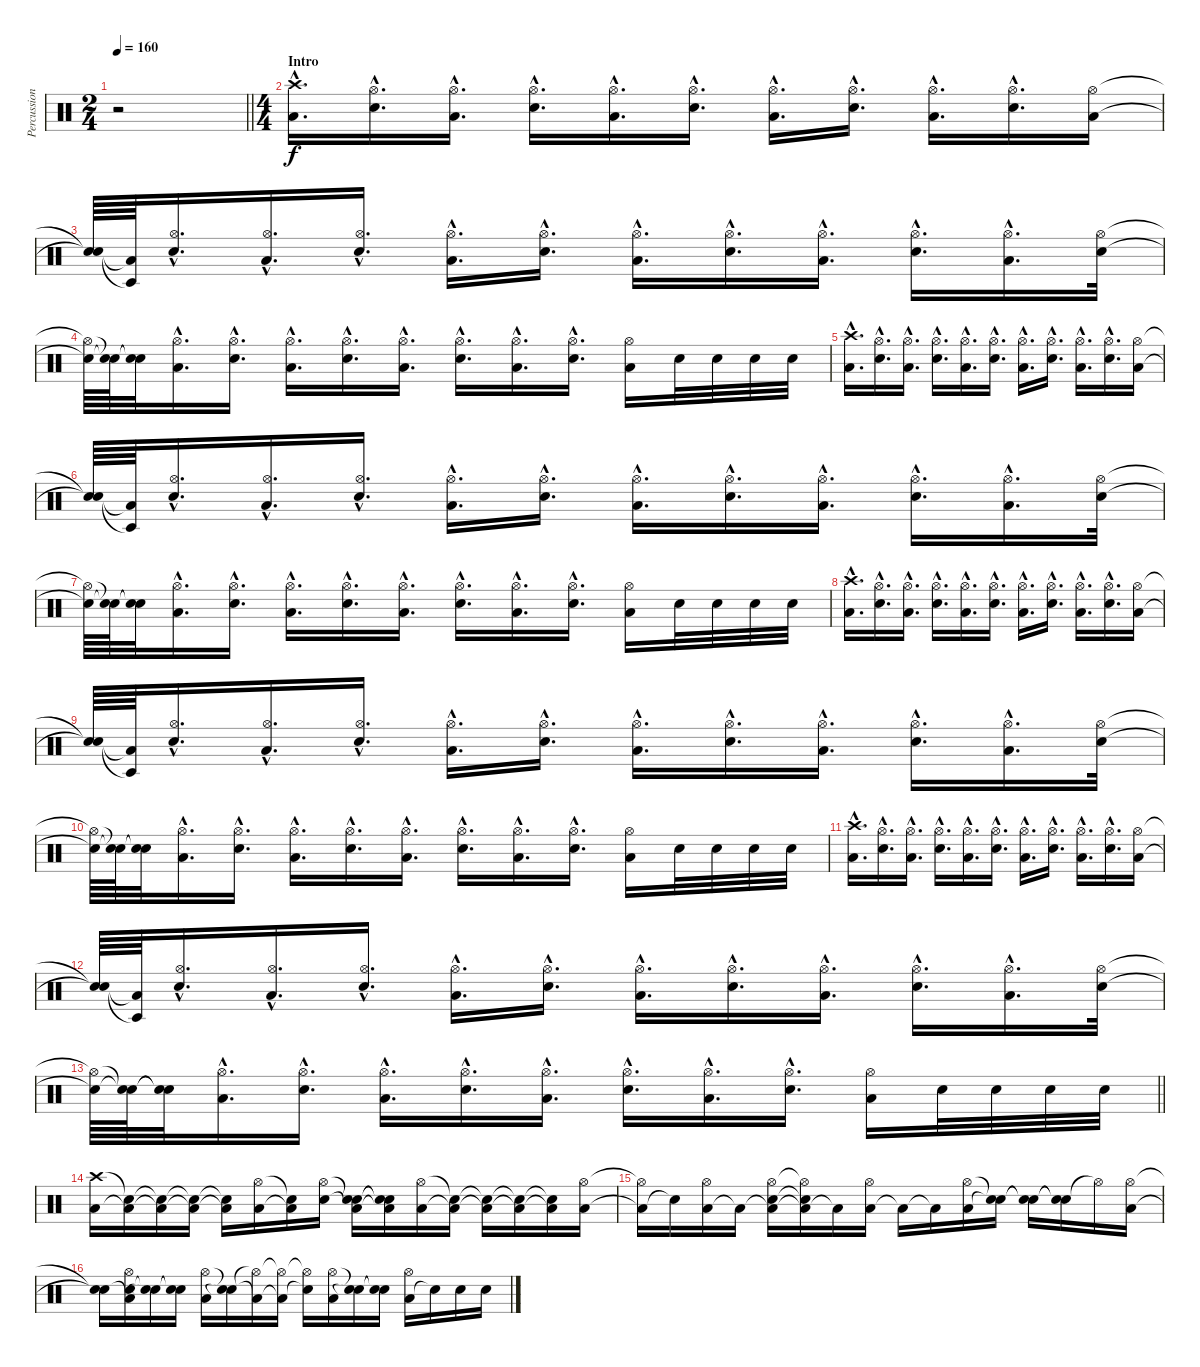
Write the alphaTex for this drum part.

\track ("Percussion 1" "Percussion") {instrument percussion}
\staff {score}
\articulation defaults
\ts (2 4)
\tempo 160
\clef neutral
\barLineRight lightlight
\ks c
r.2{dy f} |
\ts (4 4)
\section ("" "Intro")
("Low Floor Tom (hit)"{hac} "Crash high (hit)"{hac}).16{d} ("Snare (hit) 2"{hac} "Hi-Hat (open)"{hac}).16{d} ("Low Floor Tom (hit)"{hac} "Hi-Hat (open)"{hac}).16{d} ("Snare (hit) 2"{hac} "Hi-Hat (open)"{hac}).16{d} ("Low Floor Tom (hit)"{hac} "Hi-Hat (open)"{hac}).16{d} ("Snare (hit) 2"{hac} "Hi-Hat (open)"{hac}).16{d} ("Low Floor Tom (hit)"{hac} "Hi-Hat (open)"{hac}).16{d} ("Snare (hit) 2"{hac} "Hi-Hat (open)"{hac}).16{d} ("Low Floor Tom (hit)"{hac} "Hi-Hat (open)"{hac}).16{d} ("Snare (hit) 2"{hac} "Hi-Hat (open)"{hac}).16{d} ("Low Floor Tom (hit)" "Hi-Hat (open)").16 |
("Snare (hit)"{t} "Snare (hit)"{t}).64 ("Low Floor Tom (hit)"{t} "Timbale low (hit)"{t}).64 ("Snare (hit) 2"{hac} "Hi-Hat (open)"{hac}).16{d} ("Low Floor Tom (hit)"{hac} "Hi-Hat (open)"{hac}).16{d} ("Snare (hit) 2"{hac} "Hi-Hat (open)"{hac}).16{d} ("Low Floor Tom (hit)"{hac} "Hi-Hat (open)"{hac}).16{d} ("Snare (hit) 2"{hac} "Hi-Hat (open)"{hac}).16{d} ("Low Floor Tom (hit)"{hac} "Hi-Hat (open)"{hac}).16{d} ("Snare (hit) 2"{hac} "Hi-Hat (open)"{hac}).16{d} ("Low Floor Tom (hit)"{hac} "Hi-Hat (open)"{hac}).16{d} ("Snare (hit) 2"{hac} "Hi-Hat (open)"{hac}).16{d} ("Low Floor Tom (hit)"{hac} "Hi-Hat (open)"{hac}).16{d} ("Snare (hit) 2" "Hi-Hat (open)").32 |
("Snare (hit) 2"{t} "Hi-Hat (open)"{t}).64 ("Snare (hit)"{t} "Snare (hit)"{t}).64 ("Snare (hit)"{t} "Snare (hit)"{t}).32 ("Low Floor Tom (hit)"{hac} "Hi-Hat (open)"{hac}).16{d} ("Snare (hit) 2"{hac} "Hi-Hat (open)"{hac}).16{d} ("Low Floor Tom (hit)"{hac} "Hi-Hat (open)"{hac}).16{d} ("Snare (hit) 2"{hac} "Hi-Hat (open)"{hac}).16{d} ("Low Floor Tom (hit)"{hac} "Hi-Hat (open)"{hac}).16{d} ("Snare (hit) 2"{hac} "Hi-Hat (open)"{hac}).16{d} ("Low Floor Tom (hit)"{hac} "Hi-Hat (open)"{hac}).16{d} ("Snare (hit) 2"{hac} "Hi-Hat (open)"{hac}).16{d} ("Low Floor Tom (hit)" "Hi-Hat (open)").16 "Snare (hit) 2".32 "Snare (hit) 2".32 "Snare (hit) 2".32 "Snare (hit) 2".32 |
("Low Floor Tom (hit)"{hac} "Crash high (hit)"{hac}).16{d} ("Snare (hit) 2"{hac} "Hi-Hat (open)"{hac}).16{d} ("Low Floor Tom (hit)"{hac} "Hi-Hat (open)"{hac}).16{d} ("Snare (hit) 2"{hac} "Hi-Hat (open)"{hac}).16{d} ("Low Floor Tom (hit)"{hac} "Hi-Hat (open)"{hac}).16{d} ("Snare (hit) 2"{hac} "Hi-Hat (open)"{hac}).16{d} ("Low Floor Tom (hit)"{hac} "Hi-Hat (open)"{hac}).16{d} ("Snare (hit) 2"{hac} "Hi-Hat (open)"{hac}).16{d} ("Low Floor Tom (hit)"{hac} "Hi-Hat (open)"{hac}).16{d} ("Snare (hit) 2"{hac} "Hi-Hat (open)"{hac}).16{d} ("Low Floor Tom (hit)" "Hi-Hat (open)").16 |
("Snare (hit)"{t} "Snare (hit)"{t}).64 ("Low Floor Tom (hit)"{t} "Timbale low (hit)"{t}).64 ("Snare (hit) 2"{hac} "Hi-Hat (open)"{hac}).16{d} ("Low Floor Tom (hit)"{hac} "Hi-Hat (open)"{hac}).16{d} ("Snare (hit) 2"{hac} "Hi-Hat (open)"{hac}).16{d} ("Low Floor Tom (hit)"{hac} "Hi-Hat (open)"{hac}).16{d} ("Snare (hit) 2"{hac} "Hi-Hat (open)"{hac}).16{d} ("Low Floor Tom (hit)"{hac} "Hi-Hat (open)"{hac}).16{d} ("Snare (hit) 2"{hac} "Hi-Hat (open)"{hac}).16{d} ("Low Floor Tom (hit)"{hac} "Hi-Hat (open)"{hac}).16{d} ("Snare (hit) 2"{hac} "Hi-Hat (open)"{hac}).16{d} ("Low Floor Tom (hit)"{hac} "Hi-Hat (open)"{hac}).16{d} ("Snare (hit) 2" "Hi-Hat (open)").32 |
("Snare (hit) 2"{t} "Hi-Hat (open)"{t}).64 ("Snare (hit)"{t} "Snare (hit)"{t}).64 ("Snare (hit)"{t} "Snare (hit)"{t}).32 ("Low Floor Tom (hit)"{hac} "Hi-Hat (open)"{hac}).16{d} ("Snare (hit) 2"{hac} "Hi-Hat (open)"{hac}).16{d} ("Low Floor Tom (hit)"{hac} "Hi-Hat (open)"{hac}).16{d} ("Snare (hit) 2"{hac} "Hi-Hat (open)"{hac}).16{d} ("Low Floor Tom (hit)"{hac} "Hi-Hat (open)"{hac}).16{d} ("Snare (hit) 2"{hac} "Hi-Hat (open)"{hac}).16{d} ("Low Floor Tom (hit)"{hac} "Hi-Hat (open)"{hac}).16{d} ("Snare (hit) 2"{hac} "Hi-Hat (open)"{hac}).16{d} ("Low Floor Tom (hit)" "Hi-Hat (open)").16 "Snare (hit) 2".32 "Snare (hit) 2".32 "Snare (hit) 2".32 "Snare (hit) 2".32 |
("Low Floor Tom (hit)"{hac} "Crash high (hit)"{hac}).16{d} ("Snare (hit) 2"{hac} "Hi-Hat (open)"{hac}).16{d} ("Low Floor Tom (hit)"{hac} "Hi-Hat (open)"{hac}).16{d} ("Snare (hit) 2"{hac} "Hi-Hat (open)"{hac}).16{d} ("Low Floor Tom (hit)"{hac} "Hi-Hat (open)"{hac}).16{d} ("Snare (hit) 2"{hac} "Hi-Hat (open)"{hac}).16{d} ("Low Floor Tom (hit)"{hac} "Hi-Hat (open)"{hac}).16{d} ("Snare (hit) 2"{hac} "Hi-Hat (open)"{hac}).16{d} ("Low Floor Tom (hit)"{hac} "Hi-Hat (open)"{hac}).16{d} ("Snare (hit) 2"{hac} "Hi-Hat (open)"{hac}).16{d} ("Low Floor Tom (hit)" "Hi-Hat (open)").16 |
("Snare (hit)"{t} "Snare (hit)"{t}).64 ("Low Floor Tom (hit)"{t} "Timbale low (hit)"{t}).64 ("Snare (hit) 2"{hac} "Hi-Hat (open)"{hac}).16{d} ("Low Floor Tom (hit)"{hac} "Hi-Hat (open)"{hac}).16{d} ("Snare (hit) 2"{hac} "Hi-Hat (open)"{hac}).16{d} ("Low Floor Tom (hit)"{hac} "Hi-Hat (open)"{hac}).16{d} ("Snare (hit) 2"{hac} "Hi-Hat (open)"{hac}).16{d} ("Low Floor Tom (hit)"{hac} "Hi-Hat (open)"{hac}).16{d} ("Snare (hit) 2"{hac} "Hi-Hat (open)"{hac}).16{d} ("Low Floor Tom (hit)"{hac} "Hi-Hat (open)"{hac}).16{d} ("Snare (hit) 2"{hac} "Hi-Hat (open)"{hac}).16{d} ("Low Floor Tom (hit)"{hac} "Hi-Hat (open)"{hac}).16{d} ("Snare (hit) 2" "Hi-Hat (open)").32 |
("Snare (hit) 2"{t} "Hi-Hat (open)"{t}).64 ("Snare (hit)"{t} "Snare (hit)"{t}).64 ("Snare (hit)"{t} "Snare (hit)"{t}).32 ("Low Floor Tom (hit)"{hac} "Hi-Hat (open)"{hac}).16{d} ("Snare (hit) 2"{hac} "Hi-Hat (open)"{hac}).16{d} ("Low Floor Tom (hit)"{hac} "Hi-Hat (open)"{hac}).16{d} ("Snare (hit) 2"{hac} "Hi-Hat (open)"{hac}).16{d} ("Low Floor Tom (hit)"{hac} "Hi-Hat (open)"{hac}).16{d} ("Snare (hit) 2"{hac} "Hi-Hat (open)"{hac}).16{d} ("Low Floor Tom (hit)"{hac} "Hi-Hat (open)"{hac}).16{d} ("Snare (hit) 2"{hac} "Hi-Hat (open)"{hac}).16{d} ("Low Floor Tom (hit)" "Hi-Hat (open)").16 "Snare (hit) 2".32 "Snare (hit) 2".32 "Snare (hit) 2".32 "Snare (hit) 2".32 |
("Low Floor Tom (hit)"{hac} "Crash high (hit)"{hac}).16{d} ("Snare (hit) 2"{hac} "Hi-Hat (open)"{hac}).16{d} ("Low Floor Tom (hit)"{hac} "Hi-Hat (open)"{hac}).16{d} ("Snare (hit) 2"{hac} "Hi-Hat (open)"{hac}).16{d} ("Low Floor Tom (hit)"{hac} "Hi-Hat (open)"{hac}).16{d} ("Snare (hit) 2"{hac} "Hi-Hat (open)"{hac}).16{d} ("Low Floor Tom (hit)"{hac} "Hi-Hat (open)"{hac}).16{d} ("Snare (hit) 2"{hac} "Hi-Hat (open)"{hac}).16{d} ("Low Floor Tom (hit)"{hac} "Hi-Hat (open)"{hac}).16{d} ("Snare (hit) 2"{hac} "Hi-Hat (open)"{hac}).16{d} ("Low Floor Tom (hit)" "Hi-Hat (open)").16 |
("Snare (hit)"{t} "Snare (hit)"{t}).64 ("Low Floor Tom (hit)"{t} "Timbale low (hit)"{t}).64 ("Snare (hit) 2"{hac} "Hi-Hat (open)"{hac}).16{d} ("Low Floor Tom (hit)"{hac} "Hi-Hat (open)"{hac}).16{d} ("Snare (hit) 2"{hac} "Hi-Hat (open)"{hac}).16{d} ("Low Floor Tom (hit)"{hac} "Hi-Hat (open)"{hac}).16{d} ("Snare (hit) 2"{hac} "Hi-Hat (open)"{hac}).16{d} ("Low Floor Tom (hit)"{hac} "Hi-Hat (open)"{hac}).16{d} ("Snare (hit) 2"{hac} "Hi-Hat (open)"{hac}).16{d} ("Low Floor Tom (hit)"{hac} "Hi-Hat (open)"{hac}).16{d} ("Snare (hit) 2"{hac} "Hi-Hat (open)"{hac}).16{d} ("Low Floor Tom (hit)"{hac} "Hi-Hat (open)"{hac}).16{d} ("Snare (hit) 2" "Hi-Hat (open)").32 |
\barLineRight lightlight
("Snare (hit) 2"{t} "Hi-Hat (open)"{t}).64 ("Snare (hit)"{t} "Snare (hit)"{t}).64 ("Snare (hit)"{t} "Snare (hit)"{t}).32 ("Low Floor Tom (hit)"{hac} "Hi-Hat (open)"{hac}).16{d} ("Snare (hit) 2"{hac} "Hi-Hat (open)"{hac}).16{d} ("Low Floor Tom (hit)"{hac} "Hi-Hat (open)"{hac}).16{d} ("Snare (hit) 2"{hac} "Hi-Hat (open)"{hac}).16{d} ("Low Floor Tom (hit)"{hac} "Hi-Hat (open)"{hac}).16{d} ("Snare (hit) 2"{hac} "Hi-Hat (open)"{hac}).16{d} ("Low Floor Tom (hit)"{hac} "Hi-Hat (open)"{hac}).16{d} ("Snare (hit) 2"{hac} "Hi-Hat (open)"{hac}).16{d} ("Low Floor Tom (hit)" "Hi-Hat (open)").16 "Snare (hit) 2".32 "Snare (hit) 2".32 "Snare (hit) 2".32 "Snare (hit) 2".32 |
\section ("" " ")
("Low Floor Tom (hit)" "Crash high (hit)").16 ("Low Floor Tom (hit)"{t} "Snare (hit)"{t}).16 ("Low Floor Tom (hit)"{t} "Snare (hit)"{t}).16 ("Low Floor Tom (hit)"{t} "Snare (hit)"{t}).16 ("Low Floor Tom (hit)"{t} "Snare (hit)"{t}).16 ("Low Floor Tom (hit)" "Hi-Hat (open)").16 ("Low Floor Tom (hit)"{t} "Snare (hit)"{t}).16 ("Snare (hit) 2" "Hi-Hat (open)").16 ("Low Floor Tom (hit)"{t} "Snare (hit)"{t} "Snare (hit)").16 ("Low Floor Tom (hit)"{t} "Snare (hit)"{t} "Snare (hit)"{t}).16 ("Low Floor Tom (hit)" "Hi-Hat (open)").16 ("Low Floor Tom (hit)"{t} "Snare (hit)"{t}).16 ("Low Floor Tom (hit)"{t} "Snare (hit)"{t}).16 ("Low Floor Tom (hit)"{t} "Snare (hit)"{t}).16 ("Low Floor Tom (hit)"{t} "Snare (hit)"{t}).16 ("Low Floor Tom (hit)" "Hi-Hat (open)").16 |
("Low Floor Tom (hit)"{t} "Hi-Hat (open)"{t}).16 "Snare (hit)"{t}.16 ("Low Floor Tom (hit)" "Hi-Hat (open)").16 "Low Floor Tom (hit)"{t}.16 ("Low Floor Tom (hit)"{t} "Snare (hit) 2" "Hi-Hat (open)").16 ("Low Floor Tom (hit)"{t} "Snare (hit)"{t} "Hi-Hat (open)"{t}).16 "Low Floor Tom (hit)"{t}.16 ("Low Floor Tom (hit)" "Hi-Hat (open)").16 "Low Floor Tom (hit)"{t}.16 "Low Floor Tom (hit)"{t}.16 ("Low Floor Tom (hit)" "Hi-Hat (open)").16 ("Snare (hit)"{t} "Snare (hit)"{t}).16 ("Snare (hit)"{t} "Snare (hit)"{t}).16 ("Snare (hit)"{t} "Snare (hit)"{t}).16 "Hi-Hat (open)"{t}.16 ("Low Floor Tom (hit)" "Hi-Hat (open)").16 |
("Snare (hit)"{t} "Snare (hit)"{t}).16 ("Low Floor Tom (hit)"{t} "Snare (hit) 2" "Hi-Hat (open)").16 ("Snare (hit)"{t} "Snare (hit)"{t}).16 ("Snare (hit)"{t} "Snare (hit)"{t}).16 ("Low Floor Tom (hit)" "Hi-Hat (open)").16 ("Snare (hit)"{t} "Snare (hit)"{t}).16 ("Low Floor Tom (hit)"{t} "Hi-Hat (open)"{t}).16 ("Low Floor Tom (hit)"{t} "Hi-Hat (open)"{t}).16 ("Snare (hit)"{t} "Hi-Hat (open)"{t}).16 ("Low Floor Tom (hit)" "Hi-Hat (open)").16 ("Snare (hit)"{t} "Snare (hit)"{t}).16 ("Snare (hit)"{t} "Snare (hit)"{t}).16 ("Low Floor Tom (hit)" "Hi-Hat (open)").16 "Snare (hit)"{t}.16 "Snare (hit) 2".16 "Snare (hit) 2".16
